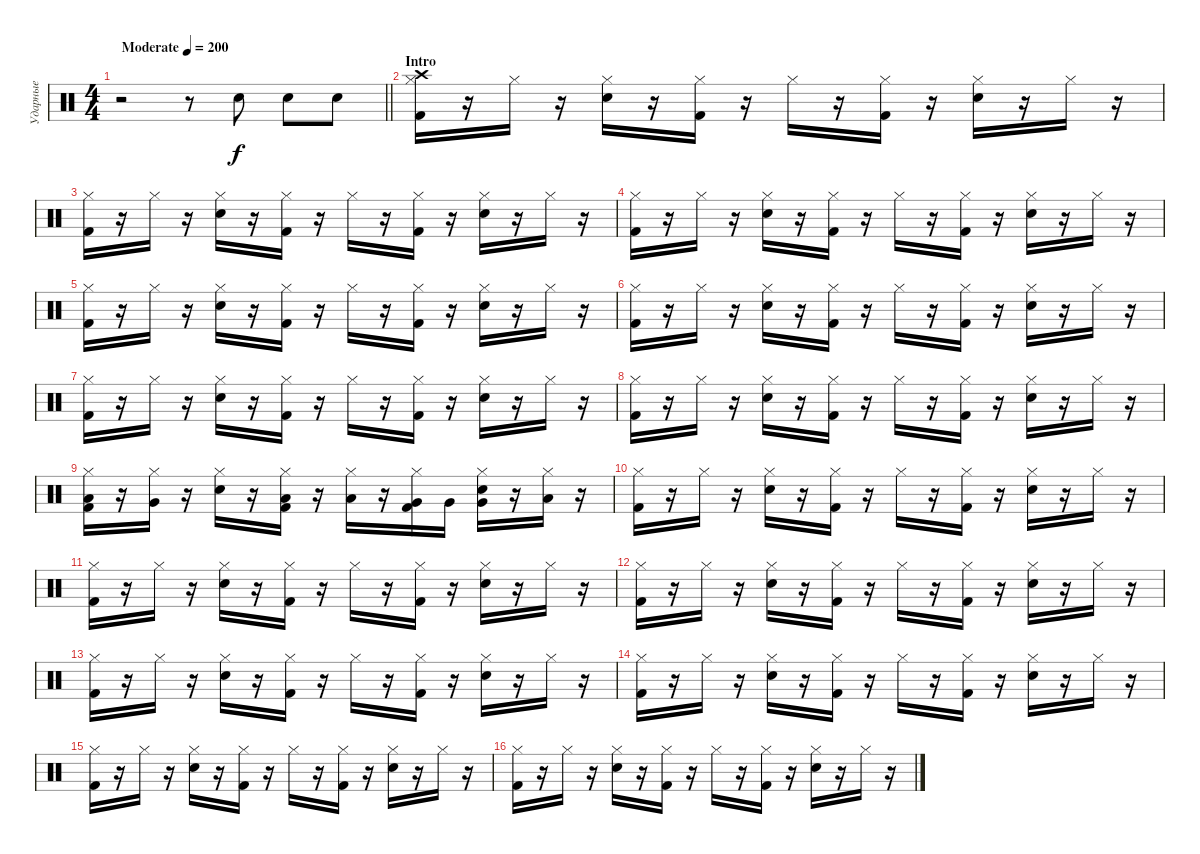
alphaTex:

\track ("Ударные" "Ударные") {instrument percussion}
\staff {score}
\articulation defaults
\ts (4 4)
\tempo (200 "Moderate")
\clef neutral
\barLineRight lightlight
\ks c
r.2{dy f} r.8 "Snare (hit) 2".8 "Snare (hit) 2".8 "Snare (hit) 2".8 |
\section ("" "Intro")
("Kick (hit) 2" "Crash high (hit)" "Hi-Hat (closed)").16 r.16 "Hi-Hat (closed)".16 r.16 ("Snare (hit) 2" "Hi-Hat (closed)").16 r.16 ("Kick (hit) 2" "Hi-Hat (closed)").16 r.16 "Hi-Hat (closed)".16 r.16 ("Kick (hit) 2" "Hi-Hat (closed)").16 r.16 ("Snare (hit) 2" "Hi-Hat (closed)").16 r.16 "Hi-Hat (closed)".16 r.16 |
("Kick (hit) 2" "Hi-Hat (closed)").16 r.16 "Hi-Hat (closed)".16 r.16 ("Snare (hit) 2" "Hi-Hat (closed)").16 r.16 ("Kick (hit) 2" "Hi-Hat (closed)").16 r.16 "Hi-Hat (closed)".16 r.16 ("Kick (hit) 2" "Hi-Hat (closed)").16 r.16 ("Snare (hit) 2" "Hi-Hat (closed)").16 r.16 "Hi-Hat (closed)".16 r.16 |
("Kick (hit) 2" "Hi-Hat (closed)").16 r.16 "Hi-Hat (closed)".16 r.16 ("Snare (hit) 2" "Hi-Hat (closed)").16 r.16 ("Kick (hit) 2" "Hi-Hat (closed)").16 r.16 "Hi-Hat (closed)".16 r.16 ("Kick (hit) 2" "Hi-Hat (closed)").16 r.16 ("Snare (hit) 2" "Hi-Hat (closed)").16 r.16 "Hi-Hat (closed)".16 r.16 |
("Kick (hit) 2" "Hi-Hat (closed)").16 r.16 "Hi-Hat (closed)".16 r.16 ("Snare (hit) 2" "Hi-Hat (closed)").16 r.16 ("Kick (hit) 2" "Hi-Hat (closed)").16 r.16 "Hi-Hat (closed)".16 r.16 ("Kick (hit) 2" "Hi-Hat (closed)").16 r.16 ("Snare (hit) 2" "Hi-Hat (closed)").16 r.16 "Hi-Hat (closed)".16 r.16 |
("Kick (hit) 2" "Hi-Hat (closed)").16 r.16 "Hi-Hat (closed)".16 r.16 ("Snare (hit) 2" "Hi-Hat (closed)").16 r.16 ("Kick (hit) 2" "Hi-Hat (closed)").16 r.16 "Hi-Hat (closed)".16 r.16 ("Kick (hit) 2" "Hi-Hat (closed)").16 r.16 ("Snare (hit) 2" "Hi-Hat (closed)").16 r.16 "Hi-Hat (closed)".16 r.16 |
("Kick (hit) 2" "Hi-Hat (closed)").16 r.16 "Hi-Hat (closed)".16 r.16 ("Snare (hit) 2" "Hi-Hat (closed)").16 r.16 ("Kick (hit) 2" "Hi-Hat (closed)").16 r.16 "Hi-Hat (closed)".16 r.16 ("Kick (hit) 2" "Hi-Hat (closed)").16 r.16 ("Snare (hit) 2" "Hi-Hat (closed)").16 r.16 "Hi-Hat (closed)".16 r.16 |
("Kick (hit) 2" "Hi-Hat (closed)").16 r.16 "Hi-Hat (closed)".16 r.16 ("Snare (hit) 2" "Hi-Hat (closed)").16 r.16 ("Kick (hit) 2" "Hi-Hat (closed)").16 r.16 "Hi-Hat (closed)".16 r.16 ("Kick (hit) 2" "Hi-Hat (closed)").16 r.16 ("Snare (hit) 2" "Hi-Hat (closed)").16 r.16 "Hi-Hat (closed)".16 r.16 |
("Kick (hit) 2" "Low Floor Tom (hit)" "Hi-Hat (closed)").16 r.16 ("Very Low Tom (hit)" "Hi-Hat (closed)").16 r.16 ("Snare (hit) 2" "Hi-Hat (closed)").16 r.16 ("Kick (hit) 2" "Low Floor Tom (hit)" "Hi-Hat (closed)").16 r.16 ("Low Floor Tom (hit)" "Hi-Hat (closed)").16 r.16 ("Kick (hit) 2" "Very Low Tom (hit)" "Hi-Hat (closed)").16 "Very Low Tom (hit)".16 ("Snare (hit) 2" "Very Low Tom (hit)" "Hi-Hat (closed)").16 r.16 ("Low Tom (hit)" "Hi-Hat (closed)").16 r.16 |
("Kick (hit) 2" "Hi-Hat (closed)").16 r.16 "Hi-Hat (closed)".16 r.16 ("Snare (hit) 2" "Hi-Hat (closed)").16 r.16 ("Kick (hit) 2" "Hi-Hat (closed)").16 r.16 "Hi-Hat (closed)".16 r.16 ("Kick (hit) 2" "Hi-Hat (closed)").16 r.16 ("Snare (hit) 2" "Hi-Hat (closed)").16 r.16 "Hi-Hat (closed)".16 r.16 |
("Kick (hit) 2" "Hi-Hat (closed)").16 r.16 "Hi-Hat (closed)".16 r.16 ("Snare (hit) 2" "Hi-Hat (closed)").16 r.16 ("Kick (hit) 2" "Hi-Hat (closed)").16 r.16 "Hi-Hat (closed)".16 r.16 ("Kick (hit) 2" "Hi-Hat (closed)").16 r.16 ("Snare (hit) 2" "Hi-Hat (closed)").16 r.16 "Hi-Hat (closed)".16 r.16 |
("Kick (hit) 2" "Hi-Hat (closed)").16 r.16 "Hi-Hat (closed)".16 r.16 ("Snare (hit) 2" "Hi-Hat (closed)").16 r.16 ("Kick (hit) 2" "Hi-Hat (closed)").16 r.16 "Hi-Hat (closed)".16 r.16 ("Kick (hit) 2" "Hi-Hat (closed)").16 r.16 ("Snare (hit) 2" "Hi-Hat (closed)").16 r.16 "Hi-Hat (closed)".16 r.16 |
("Kick (hit) 2" "Hi-Hat (closed)").16 r.16 "Hi-Hat (closed)".16 r.16 ("Snare (hit) 2" "Hi-Hat (closed)").16 r.16 ("Kick (hit) 2" "Hi-Hat (closed)").16 r.16 "Hi-Hat (closed)".16 r.16 ("Kick (hit) 2" "Hi-Hat (closed)").16 r.16 ("Snare (hit) 2" "Hi-Hat (closed)").16 r.16 "Hi-Hat (closed)".16 r.16 |
("Kick (hit) 2" "Hi-Hat (closed)").16 r.16 "Hi-Hat (closed)".16 r.16 ("Snare (hit) 2" "Hi-Hat (closed)").16 r.16 ("Kick (hit) 2" "Hi-Hat (closed)").16 r.16 "Hi-Hat (closed)".16 r.16 ("Kick (hit) 2" "Hi-Hat (closed)").16 r.16 ("Snare (hit) 2" "Hi-Hat (closed)").16 r.16 "Hi-Hat (closed)".16 r.16 |
("Kick (hit) 2" "Hi-Hat (closed)").16 r.16 "Hi-Hat (closed)".16 r.16 ("Snare (hit) 2" "Hi-Hat (closed)").16 r.16 ("Kick (hit) 2" "Hi-Hat (closed)").16 r.16 "Hi-Hat (closed)".16 r.16 ("Kick (hit) 2" "Hi-Hat (closed)").16 r.16 ("Snare (hit) 2" "Hi-Hat (closed)").16 r.16 "Hi-Hat (closed)".16 r.16 |
("Kick (hit) 2" "Hi-Hat (closed)").16 r.16 "Hi-Hat (closed)".16 r.16 ("Snare (hit) 2" "Hi-Hat (closed)").16 r.16 ("Kick (hit) 2" "Hi-Hat (closed)").16 r.16 "Hi-Hat (closed)".16 r.16 ("Kick (hit) 2" "Hi-Hat (closed)").16 r.16 ("Snare (hit) 2" "Hi-Hat (closed)").16 r.16 "Hi-Hat (closed)".16 r.16
